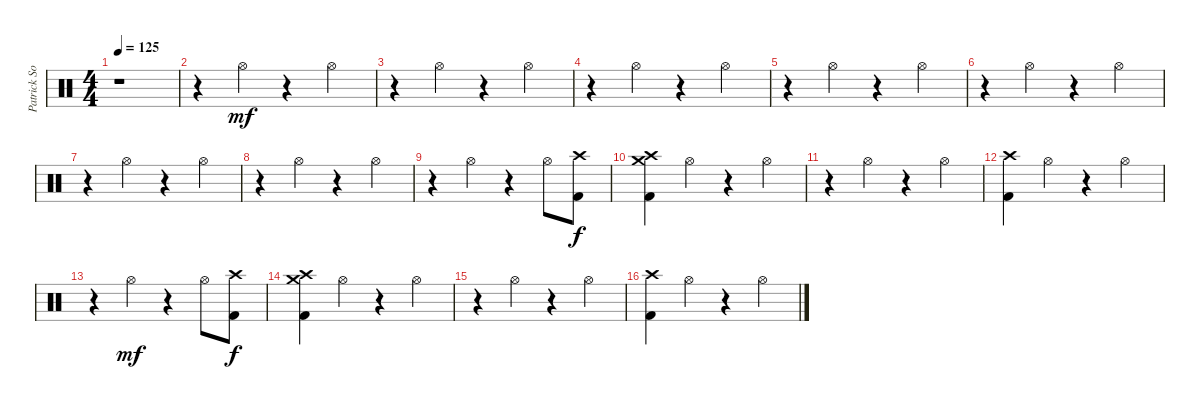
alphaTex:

\track ("Patrick Soria" "Patrick So") {instrument percussion}
\staff {score}
\articulation defaults
\ts (4 4)
\tempo 125
\clef neutral
\ks c
r.1{dy mf} |
r.4 "Hi-Hat (open)".4 r.4 "Hi-Hat (open)".4 |
r.4 "Hi-Hat (open)".4 r.4 "Hi-Hat (open)".4 |
r.4 "Hi-Hat (open)".4 r.4 "Hi-Hat (open)".4 |
r.4 "Hi-Hat (open)".4 r.4 "Hi-Hat (open)".4 |
r.4 "Hi-Hat (open)".4 r.4 "Hi-Hat (open)".4 |
r.4 "Hi-Hat (open)".4 r.4 "Hi-Hat (open)".4 |
r.4 "Hi-Hat (open)".4 r.4 "Hi-Hat (open)".4 |
r.4 "Hi-Hat (open)".4 r.4 "Hi-Hat (open)".8 ("Crash high (hit)" "Kick (hit) 2").8{dy f} |
("Crash high (hit)" "Crash medium (hit)" "Kick (hit) 2").4 "Hi-Hat (open)".4 r.4 "Hi-Hat (open)".4 |
r.4 "Hi-Hat (open)".4 r.4 "Hi-Hat (open)".4 |
("Crash high (hit)" "Kick (hit) 2").4 "Hi-Hat (open)".4 r.4 "Hi-Hat (open)".4 |
r.4 "Hi-Hat (open)".4{dy mf} r.4 "Hi-Hat (open)".8 ("Crash high (hit)" "Kick (hit) 2").8{dy f} |
("Crash high (hit)" "Crash medium (hit)" "Kick (hit) 2").4 "Hi-Hat (open)".4 r.4 "Hi-Hat (open)".4 |
r.4 "Hi-Hat (open)".4 r.4 "Hi-Hat (open)".4 |
("Crash high (hit)" "Kick (hit) 2").4 "Hi-Hat (open)".4 r.4 "Hi-Hat (open)".4
